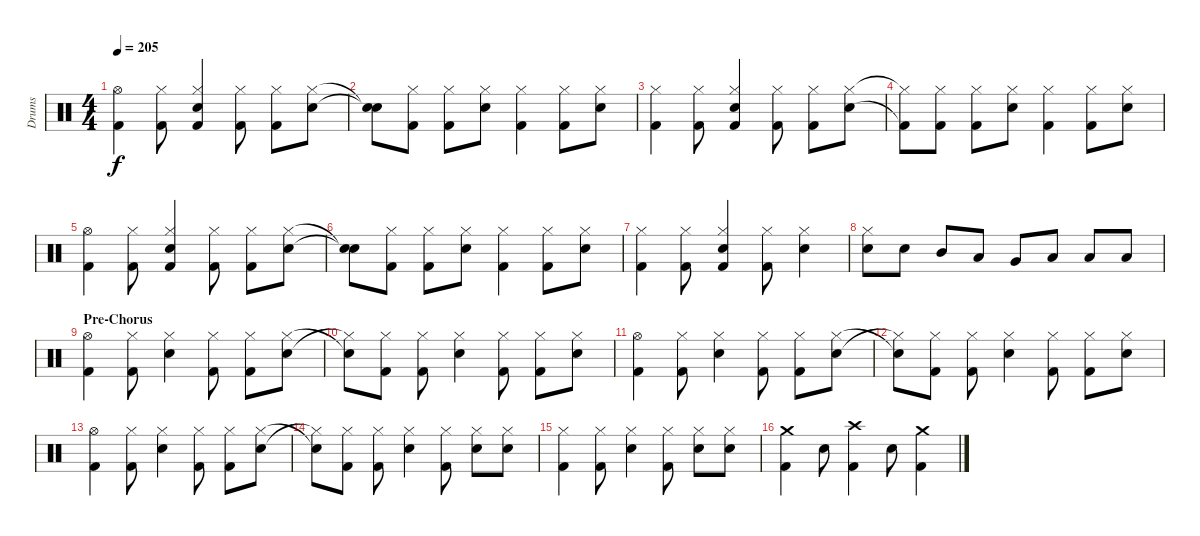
\track ("Drums" "Drums") {instrument percussion}
\staff {score}
\articulation defaults
\ts (4 4)
\tempo 205
\clef neutral
\ks c
("Hi-Hat (open)" "Kick (hit) 2").4{dy f} ("Hi-Hat (closed)" "Kick (hit) 2").8 ("Electric Snare (hit)" "Hi-Hat (closed)" "Kick (hit) 2").4 ("Hi-Hat (closed)" "Kick (hit) 2").8 ("Hi-Hat (closed)" "Kick (hit) 2").8 ("Hi-Hat (closed)" "Electric Snare (hit)").8 |
("Snare (hit)"{t} "Snare (hit)"{t}).8 ("Hi-Hat (closed)" "Kick (hit) 2").8 ("Hi-Hat (closed)" "Kick (hit) 2").8 ("Hi-Hat (closed)" "Electric Snare (hit)").8 ("Hi-Hat (closed)" "Kick (hit) 2").4 ("Hi-Hat (closed)" "Kick (hit) 2").8 ("Electric Snare (hit)" "Hi-Hat (closed)").8 |
("Hi-Hat (closed)" "Kick (hit) 2").4 ("Hi-Hat (closed)" "Kick (hit) 2").8 ("Hi-Hat (closed)" "Electric Snare (hit)" "Kick (hit) 2").4 ("Hi-Hat (closed)" "Kick (hit) 2").8 ("Hi-Hat (closed)" "Kick (hit) 2").8 ("Hi-Hat (closed)" "Electric Snare (hit)").8 |
("Hi-Hat (closed)"{t} "Kick (hit) 2"{t}).8 ("Hi-Hat (closed)" "Kick (hit) 2").8 ("Hi-Hat (closed)" "Kick (hit) 2").8 ("Electric Snare (hit)" "Hi-Hat (closed)").8 ("Hi-Hat (closed)" "Kick (hit) 2").4 ("Hi-Hat (closed)" "Kick (hit) 2").8 ("Hi-Hat (closed)" "Electric Snare (hit)").8 |
("Hi-Hat (open)" "Kick (hit) 2").4 ("Hi-Hat (closed)" "Kick (hit) 2").8 ("Electric Snare (hit)" "Hi-Hat (closed)" "Kick (hit) 2").4 ("Hi-Hat (closed)" "Kick (hit) 2").8 ("Hi-Hat (closed)" "Kick (hit) 2").8 ("Hi-Hat (closed)" "Electric Snare (hit)").8 |
("Snare (hit)"{t} "Snare (hit)"{t}).8 ("Hi-Hat (closed)" "Kick (hit) 2").8 ("Hi-Hat (closed)" "Kick (hit) 2").8 ("Hi-Hat (closed)" "Electric Snare (hit)").8 ("Hi-Hat (closed)" "Kick (hit) 2").4 ("Hi-Hat (closed)" "Kick (hit) 2").8 ("Electric Snare (hit)" "Hi-Hat (closed)").8 |
("Hi-Hat (closed)" "Kick (hit) 2").4 ("Hi-Hat (closed)" "Kick (hit) 2").8 ("Hi-Hat (closed)" "Electric Snare (hit)" "Kick (hit) 2").4 ("Hi-Hat (closed)" "Kick (hit) 2").8 ("Electric Snare (hit)" "Hi-Hat (closed)").4 |
("Hi-Hat (closed)" "Electric Snare (hit)").8 "Electric Snare (hit)".8 "Mid Tom (hit)".8 "Low Tom (hit)".8 "Very Low Tom (hit)".8 "Low Floor Tom (hit)".8 "Low Floor Tom (hit)".8 "Low Floor Tom (hit)".8 |
\section ("" "Pre-Chorus")
("Hi-Hat (open)" "Kick (hit) 2").4 ("Hi-Hat (closed)" "Kick (hit) 2").8 ("Hi-Hat (closed)" "Electric Snare (hit)").4 ("Hi-Hat (closed)" "Kick (hit) 2").8 ("Hi-Hat (closed)" "Kick (hit) 2").8 ("Hi-Hat (closed)" "Electric Snare (hit)").8 |
("Snare (hit)"{t} "Hi-Hat (closed)"{t}).8 ("Hi-Hat (closed)" "Kick (hit) 2").8 ("Hi-Hat (closed)" "Kick (hit) 2").8 ("Hi-Hat (closed)" "Electric Snare (hit)").4 ("Hi-Hat (closed)" "Kick (hit) 2").8 ("Hi-Hat (closed)" "Kick (hit) 2").8 ("Hi-Hat (closed)" "Electric Snare (hit)").8 |
("Hi-Hat (open)" "Kick (hit) 2").4 ("Hi-Hat (closed)" "Kick (hit) 2").8 ("Hi-Hat (closed)" "Electric Snare (hit)").4 ("Hi-Hat (closed)" "Kick (hit) 2").8 ("Hi-Hat (closed)" "Kick (hit) 2").8 ("Hi-Hat (closed)" "Electric Snare (hit)").8 |
("Snare (hit)"{t} "Hi-Hat (closed)"{t}).8 ("Hi-Hat (closed)" "Kick (hit) 2").8 ("Hi-Hat (closed)" "Kick (hit) 2").8 ("Hi-Hat (closed)" "Electric Snare (hit)").4 ("Hi-Hat (closed)" "Kick (hit) 2").8 ("Hi-Hat (closed)" "Kick (hit) 2").8 ("Hi-Hat (closed)" "Electric Snare (hit)").8 |
("Hi-Hat (open)" "Kick (hit) 2").4 ("Hi-Hat (closed)" "Kick (hit) 2").8 ("Hi-Hat (closed)" "Electric Snare (hit)").4 ("Hi-Hat (closed)" "Kick (hit) 2").8 ("Hi-Hat (closed)" "Kick (hit) 2").8 ("Hi-Hat (closed)" "Electric Snare (hit)").8 |
("Snare (hit)"{t} "Hi-Hat (closed)"{t}).8 ("Hi-Hat (closed)" "Kick (hit) 2").8 ("Hi-Hat (closed)" "Kick (hit) 2").8 ("Hi-Hat (closed)" "Electric Snare (hit)").4 ("Hi-Hat (closed)" "Kick (hit) 2").8 ("Hi-Hat (closed)" "Electric Snare (hit)").8 ("Hi-Hat (closed)" "Electric Snare (hit)").8 |
("Hi-Hat (closed)" "Kick (hit) 2").4 ("Kick (hit) 2" "Hi-Hat (closed)").8 ("Hi-Hat (closed)" "Electric Snare (hit)").4 ("Hi-Hat (closed)" "Kick (hit) 2").8 ("Electric Snare (hit)" "Hi-Hat (closed)").8 ("Electric Snare (hit)" "Hi-Hat (closed)").8 |
("Crash medium (hit)" "Kick (hit) 2").4 "Electric Snare (hit)".8 ("Crash high (hit)" "Kick (hit) 2").4 "Electric Snare (hit)".8 ("Crash medium (hit)" "Kick (hit) 2").4
